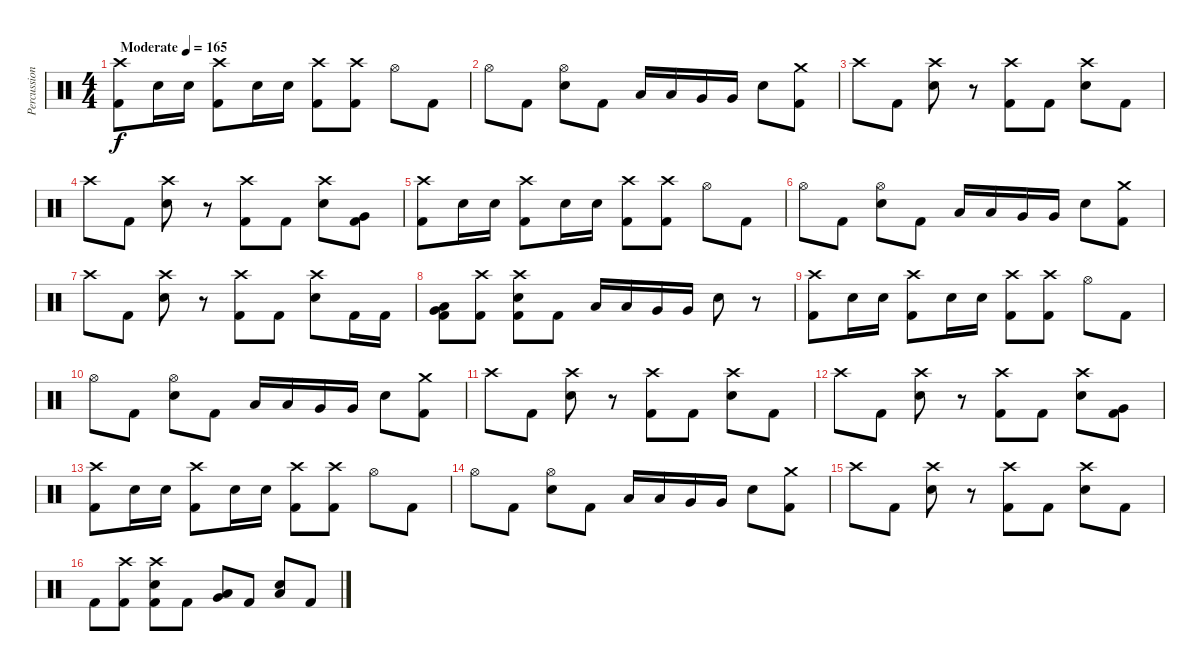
\track ("Percussion" "Percussion") {instrument percussion}
\staff {score}
\articulation defaults
\ts (4 4)
\tempo (165 "Moderate")
\clef neutral
\ks c
("Crash high (hit)" "Kick (hit) 2").8{dy f} "Electric Snare (hit)".16 "Electric Snare (hit)".16 ("Crash high (hit)" "Kick (hit) 2").8 "Electric Snare (hit)".16 "Electric Snare (hit)".16 ("Crash high (hit)" "Kick (hit) 2").8 ("Crash high (hit)" "Kick (hit) 2").8 "Hi-Hat (open)".8 "Kick (hit) 2".8 |
"Hi-Hat (open)".8 "Kick (hit) 2".8 ("Hi-Hat (open)" "Electric Snare (hit)").8 "Kick (hit) 2".8 "Low Tom (hit)".16 "Low Tom (hit)".16 "Very Low Tom (hit)".16 "Very Low Tom (hit)".16 "Electric Snare (hit)".8 ("Crash medium (hit)" "Kick (hit) 2").8 |
"Crash high (hit)".8 "Kick (hit) 2".8 ("Crash high (hit)" "Electric Snare (hit)").8 r.8 ("Crash high (hit)" "Kick (hit) 2").8 "Kick (hit) 2".8 ("Crash high (hit)" "Electric Snare (hit)").8 "Kick (hit) 2".8 |
"Crash high (hit)".8 "Kick (hit) 2".8 ("Crash high (hit)" "Electric Snare (hit)").8 r.8 ("Crash high (hit)" "Kick (hit) 2").8 "Kick (hit) 2".8 ("Crash high (hit)" "Electric Snare (hit)").8 ("Very Low Tom (hit)" "Kick (hit) 2").8 |
("Crash high (hit)" "Kick (hit) 2").8 "Electric Snare (hit)".16 "Electric Snare (hit)".16 ("Crash high (hit)" "Kick (hit) 2").8 "Electric Snare (hit)".16 "Electric Snare (hit)".16 ("Crash high (hit)" "Kick (hit) 2").8 ("Crash high (hit)" "Kick (hit) 2").8 "Hi-Hat (open)".8 "Kick (hit) 2".8 |
"Hi-Hat (open)".8 "Kick (hit) 2".8 ("Hi-Hat (open)" "Electric Snare (hit)").8 "Kick (hit) 2".8 "Low Tom (hit)".16 "Low Tom (hit)".16 "Very Low Tom (hit)".16 "Very Low Tom (hit)".16 "Electric Snare (hit)".8 ("Crash medium (hit)" "Kick (hit) 2").8 |
"Crash high (hit)".8 "Kick (hit) 2".8 ("Crash high (hit)" "Electric Snare (hit)").8 r.8 ("Crash high (hit)" "Kick (hit) 2").8 "Kick (hit) 2".8 ("Crash high (hit)" "Electric Snare (hit)").8 "Kick (hit) 2".16 "Kick (hit) 2".16 |
("Low Tom (hit)" "Very Low Tom (hit)" "Kick (hit) 2").8 ("Crash high (hit)" "Kick (hit) 2").8 ("Crash high (hit)" "Electric Snare (hit)" "Kick (hit) 2").8 "Kick (hit) 2".8 "Low Tom (hit)".16 "Low Tom (hit)".16 "Very Low Tom (hit)".16 "Very Low Tom (hit)".16 "Electric Snare (hit)".8 r.8 |
("Crash high (hit)" "Kick (hit) 2").8 "Electric Snare (hit)".16 "Electric Snare (hit)".16 ("Crash high (hit)" "Kick (hit) 2").8 "Electric Snare (hit)".16 "Electric Snare (hit)".16 ("Crash high (hit)" "Kick (hit) 2").8 ("Crash high (hit)" "Kick (hit) 2").8 "Hi-Hat (open)".8 "Kick (hit) 2".8 |
"Hi-Hat (open)".8 "Kick (hit) 2".8 ("Hi-Hat (open)" "Electric Snare (hit)").8 "Kick (hit) 2".8 "Low Tom (hit)".16 "Low Tom (hit)".16 "Very Low Tom (hit)".16 "Very Low Tom (hit)".16 "Electric Snare (hit)".8 ("Crash medium (hit)" "Kick (hit) 2").8 |
"Crash high (hit)".8 "Kick (hit) 2".8 ("Crash high (hit)" "Electric Snare (hit)").8 r.8 ("Crash high (hit)" "Kick (hit) 2").8 "Kick (hit) 2".8 ("Crash high (hit)" "Electric Snare (hit)").8 "Kick (hit) 2".8 |
"Crash high (hit)".8 "Kick (hit) 2".8 ("Crash high (hit)" "Electric Snare (hit)").8 r.8 ("Crash high (hit)" "Kick (hit) 2").8 "Kick (hit) 2".8 ("Crash high (hit)" "Electric Snare (hit)").8 ("Very Low Tom (hit)" "Kick (hit) 2").8 |
("Crash high (hit)" "Kick (hit) 2").8 "Electric Snare (hit)".16 "Electric Snare (hit)".16 ("Crash high (hit)" "Kick (hit) 2").8 "Electric Snare (hit)".16 "Electric Snare (hit)".16 ("Crash high (hit)" "Kick (hit) 2").8 ("Crash high (hit)" "Kick (hit) 2").8 "Hi-Hat (open)".8 "Kick (hit) 2".8 |
"Hi-Hat (open)".8 "Kick (hit) 2".8 ("Hi-Hat (open)" "Electric Snare (hit)").8 "Kick (hit) 2".8 "Low Tom (hit)".16 "Low Tom (hit)".16 "Very Low Tom (hit)".16 "Very Low Tom (hit)".16 "Electric Snare (hit)".8 ("Crash medium (hit)" "Kick (hit) 2").8 |
"Crash high (hit)".8 "Kick (hit) 2".8 ("Crash high (hit)" "Electric Snare (hit)").8 r.8 ("Crash high (hit)" "Kick (hit) 2").8 "Kick (hit) 2".8 ("Crash high (hit)" "Electric Snare (hit)").8 "Kick (hit) 2".8 |
"Kick (hit) 2".8 ("Crash high (hit)" "Kick (hit) 2").8 ("Crash high (hit)" "Electric Snare (hit)" "Kick (hit) 2").8 "Kick (hit) 2".8 ("Low Tom (hit)" "Very Low Tom (hit)").8 "Kick (hit) 2".8 ("Electric Snare (hit)" "Low Floor Tom (hit)").8 "Kick (hit) 2".8
